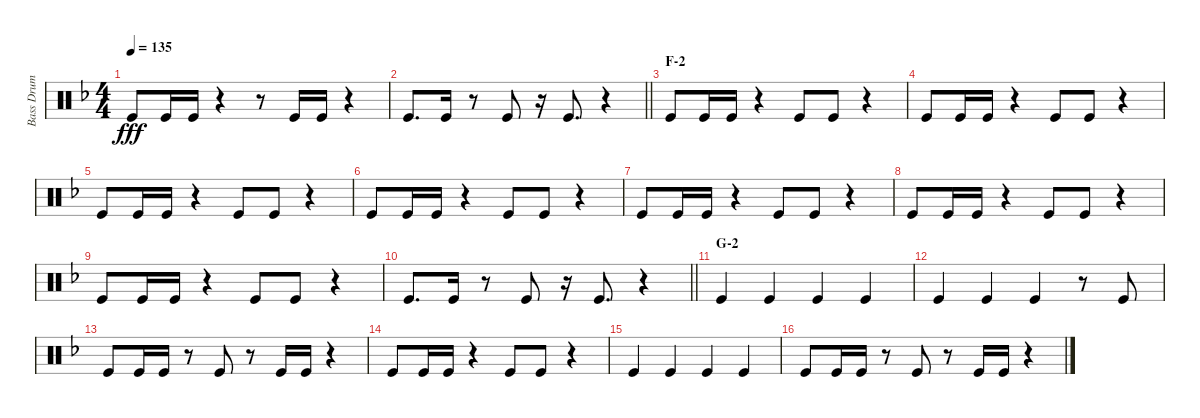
\track ("Bass Drum" "Bass Drum") {instrument percussion}
\staff {score}
\articulation defaults
\ts (4 4)
\tempo 135
\clef neutral
\ks f "Kick (hit)".8{dy fff} "Kick (hit)".16 "Kick (hit)".16
r.4 r.8 "Kick (hit)".16 "Kick (hit)".16 r.4 |
\barLineRight lightlight "Kick (hit)".8{d} "Kick (hit)".16
r.8 "Kick (hit)".8 r.16 "Kick (hit)".8{d} r.4 |
\section ("" "F-2")
"Kick (hit)".8 "Kick (hit)".16 "Kick (hit)".16 r.4 "Kick (hit)".8 "Kick (hit)".8 r.4 |
"Kick (hit)".8 "Kick (hit)".16 "Kick (hit)".16 r.4 "Kick (hit)".8 "Kick (hit)".8 r.4 |
"Kick (hit)".8 "Kick (hit)".16 "Kick (hit)".16 r.4 "Kick (hit)".8 "Kick (hit)".8 r.4 |
"Kick (hit)".8 "Kick (hit)".16 "Kick (hit)".16 r.4 "Kick (hit)".8 "Kick (hit)".8 r.4 |
"Kick (hit)".8 "Kick (hit)".16 "Kick (hit)".16 r.4 "Kick (hit)".8 "Kick (hit)".8 r.4 |
"Kick (hit)".8 "Kick (hit)".16 "Kick (hit)".16 r.4 "Kick (hit)".8 "Kick (hit)".8 r.4 |
"Kick (hit)".8 "Kick (hit)".16 "Kick (hit)".16 r.4 "Kick (hit)".8 "Kick (hit)".8 r.4 |
\barLineRight lightlight "Kick (hit)".8{d} "Kick (hit)".16
r.8 "Kick (hit)".8 r.16 "Kick (hit)".8{d} r.4 |
\section ("" "G-2")
"Kick (hit)".4 "Kick (hit)".4 "Kick (hit)".4 "Kick (hit)".4 |
"Kick (hit)".4 "Kick (hit)".4 "Kick (hit)".4 r.8 "Kick (hit)".8 |
"Kick (hit)".8 "Kick (hit)".16 "Kick (hit)".16 r.8 "Kick (hit)".8 r.8 "Kick (hit)".16 "Kick (hit)".16 r.4 |
"Kick (hit)".8 "Kick (hit)".16 "Kick (hit)".16 r.4 "Kick (hit)".8 "Kick (hit)".8 r.4 |
"Kick (hit)".4 "Kick (hit)".4 "Kick (hit)".4 "Kick (hit)".4 |
"Kick (hit)".8 "Kick (hit)".16 "Kick (hit)".16 r.8 "Kick (hit)".8 r.8 "Kick (hit)".16 "Kick (hit)".16 r.4
